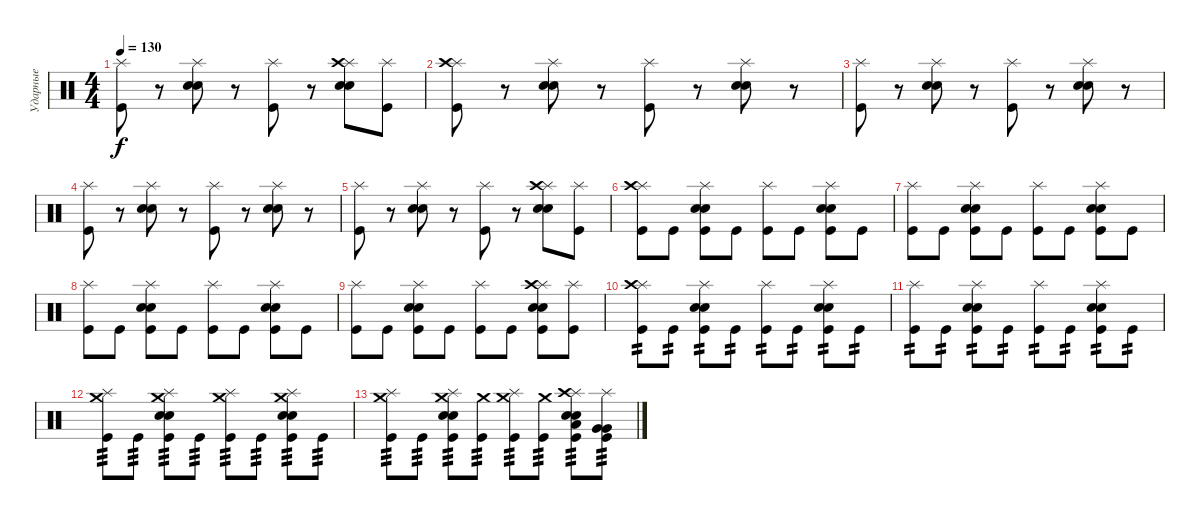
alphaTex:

\track ("Ударные" "Ударные") {instrument percussion}
\staff {score}
\articulation defaults
\ts (4 4)
\tempo 130
\clef neutral
\ks c
("Splash (hit)" "Kick (hit)").8{dy f} r.8 ("Splash (hit)" "Electric Snare (hit)" "Electric Snare (hit)").8 r.8 ("Splash (hit)" "Kick (hit)").8 r.8 ("Splash (hit)" "Crash high (hit)" "Electric Snare (hit)" "Electric Snare (hit)").8 ("Splash (hit)" "Kick (hit)").8 |
("Splash (hit)" "Crash high (hit)" "Kick (hit)").8 r.8 ("Splash (hit)" "Electric Snare (hit)" "Electric Snare (hit)").8 r.8 ("Splash (hit)" "Kick (hit)").8 r.8 ("Splash (hit)" "Electric Snare (hit)" "Electric Snare (hit)").8 r.8 |
("Splash (hit)" "Kick (hit)").8 r.8 ("Splash (hit)" "Electric Snare (hit)" "Electric Snare (hit)").8 r.8 ("Splash (hit)" "Kick (hit)").8 r.8 ("Splash (hit)" "Electric Snare (hit)" "Electric Snare (hit)").8 r.8 |
("Splash (hit)" "Kick (hit)").8 r.8 ("Splash (hit)" "Electric Snare (hit)" "Electric Snare (hit)").8 r.8 ("Splash (hit)" "Kick (hit)").8 r.8 ("Splash (hit)" "Electric Snare (hit)" "Electric Snare (hit)").8 r.8 |
("Splash (hit)" "Kick (hit)").8 r.8 ("Splash (hit)" "Electric Snare (hit)" "Electric Snare (hit)").8 r.8 ("Splash (hit)" "Kick (hit)").8 r.8 ("Splash (hit)" "Crash high (hit)" "Electric Snare (hit)" "Electric Snare (hit)").8 ("Splash (hit)" "Kick (hit)").8 |
("Splash (hit)" "Crash high (hit)" "Kick (hit)").8 "Kick (hit)".8 ("Splash (hit)" "Electric Snare (hit)" "Electric Snare (hit)" "Kick (hit)").8 "Kick (hit)".8 ("Splash (hit)" "Kick (hit)").8 "Kick (hit)".8 ("Splash (hit)" "Electric Snare (hit)" "Electric Snare (hit)" "Kick (hit)").8 "Kick (hit)".8 |
("Splash (hit)" "Kick (hit)").8 "Kick (hit)".8 ("Splash (hit)" "Electric Snare (hit)" "Electric Snare (hit)" "Kick (hit)").8 "Kick (hit)".8 ("Splash (hit)" "Kick (hit)").8 "Kick (hit)".8 ("Splash (hit)" "Electric Snare (hit)" "Electric Snare (hit)" "Kick (hit)").8 "Kick (hit)".8 |
("Splash (hit)" "Kick (hit)").8 "Kick (hit)".8 ("Splash (hit)" "Electric Snare (hit)" "Electric Snare (hit)" "Kick (hit)").8 "Kick (hit)".8 ("Splash (hit)" "Kick (hit)").8 "Kick (hit)".8 ("Splash (hit)" "Electric Snare (hit)" "Electric Snare (hit)" "Kick (hit)").8 "Kick (hit)".8 |
("Splash (hit)" "Kick (hit)").8 "Kick (hit)".8 ("Splash (hit)" "Electric Snare (hit)" "Electric Snare (hit)" "Kick (hit)").8 "Kick (hit)".8 ("Splash (hit)" "Kick (hit)").8 "Kick (hit)".8 ("Splash (hit)" "Crash high (hit)" "Electric Snare (hit)" "Electric Snare (hit)" "Kick (hit)").8 ("Splash (hit)" "Kick (hit)").8 |
("Splash (hit)" "Crash high (hit)" "Kick (hit)").8{tp 2} "Kick (hit)".8{tp 2} ("Splash (hit)" "Electric Snare (hit)" "Electric Snare (hit)" "Kick (hit)").8{tp 2} "Kick (hit)".8{tp 2} ("Splash (hit)" "Kick (hit)").8{tp 2} "Kick (hit)".8{tp 2} ("Splash (hit)" "Electric Snare (hit)" "Electric Snare (hit)" "Kick (hit)").8{tp 2} "Kick (hit)".8{tp 2} |
("Splash (hit)" "Kick (hit)").8{tp 2} "Kick (hit)".8{tp 2} ("Splash (hit)" "Electric Snare (hit)" "Electric Snare (hit)" "Kick (hit)").8{tp 2} "Kick (hit)".8{tp 2} ("Splash (hit)" "Kick (hit)").8{tp 2} "Kick (hit)".8{tp 2} ("Splash (hit)" "Electric Snare (hit)" "Electric Snare (hit)" "Kick (hit)").8{tp 2} "Kick (hit)".8{tp 2} |
("Splash (hit)" "Crash medium (hit)" "Kick (hit)").8{tp 3} "Kick (hit)".8{tp 3} ("Splash (hit)" "Crash medium (hit)" "Electric Snare (hit)" "Electric Snare (hit)" "Kick (hit)").8{tp 3} "Kick (hit)".8{tp 3} ("Splash (hit)" "Crash medium (hit)" "Kick (hit)").8{tp 3} "Kick (hit)".8{tp 3} ("Splash (hit)" "Crash medium (hit)" "Electric Snare (hit)" "Electric Snare (hit)" "Kick (hit)").8{tp 3} "Kick (hit)".8{tp 3} |
("Splash (hit)" "Crash medium (hit)" "Kick (hit)").8{tp 3} "Kick (hit)".8{tp 3} ("Splash (hit)" "Crash medium (hit)" "Electric Snare (hit)" "Electric Snare (hit)" "Kick (hit)").8{tp 3} ("Crash medium (hit)" "Kick (hit)").8{tp 3} ("Splash (hit)" "Crash medium (hit)" "Kick (hit)").8{tp 3} ("Crash medium (hit)" "Kick (hit)").8{tp 3} ("Splash (hit)" "Crash high (hit)" "Electric Snare (hit)" "Electric Snare (hit)" "Low Floor Tom (hit)" "Kick (hit)").8{tp 3} ("Splash (hit)" "Very Low Tom (hit)" "Very Low Tom (hit)" "Kick (hit)").8{tp 3}
